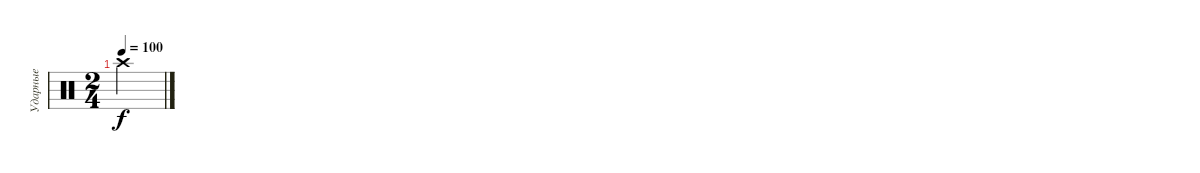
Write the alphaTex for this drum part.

\track ("Ударные" "Ударные") {instrument percussion}
\staff {score}
\articulation defaults
\ts (2 4)
\tempo 100
\clef neutral
\ks c "Crash high (hit)".2{dy f}
